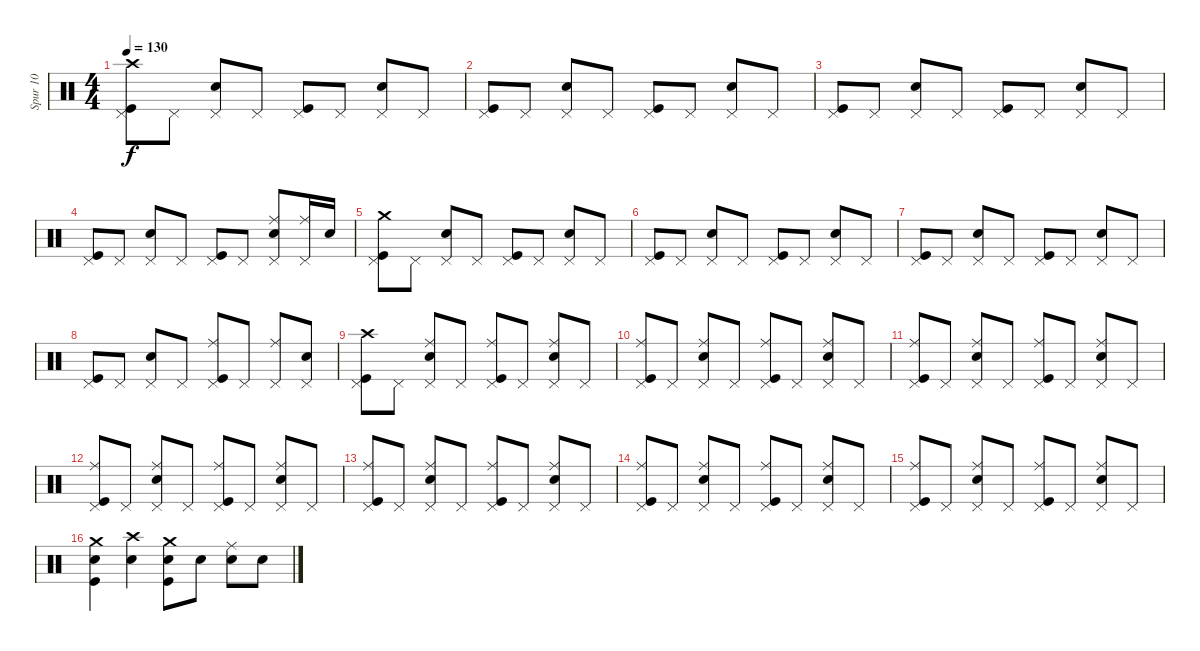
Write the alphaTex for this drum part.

\track ("Spur 10" "Spur 10") {instrument percussion}
\staff {score}
\articulation defaults
\ts (4 4)
\tempo 130
\clef neutral
\ks c
("Crash high (hit)" "Pedal Hi-Hat (hit)" "Kick (hit)").8{dy f} "Pedal Hi-Hat (hit)".8 ("Pedal Hi-Hat (hit)" "Electric Snare (hit)").8 "Pedal Hi-Hat (hit)".8 ("Pedal Hi-Hat (hit)" "Kick (hit)").8 "Pedal Hi-Hat (hit)".8 ("Pedal Hi-Hat (hit)" "Electric Snare (hit)").8 "Pedal Hi-Hat (hit)".8 |
("Pedal Hi-Hat (hit)" "Kick (hit)").8 "Pedal Hi-Hat (hit)".8 ("Pedal Hi-Hat (hit)" "Electric Snare (hit)").8 "Pedal Hi-Hat (hit)".8 ("Pedal Hi-Hat (hit)" "Kick (hit)").8 "Pedal Hi-Hat (hit)".8 ("Pedal Hi-Hat (hit)" "Electric Snare (hit)").8 "Pedal Hi-Hat (hit)".8 |
("Pedal Hi-Hat (hit)" "Kick (hit)").8 "Pedal Hi-Hat (hit)".8 ("Pedal Hi-Hat (hit)" "Electric Snare (hit)").8 "Pedal Hi-Hat (hit)".8 ("Pedal Hi-Hat (hit)" "Kick (hit)").8 "Pedal Hi-Hat (hit)".8 ("Pedal Hi-Hat (hit)" "Electric Snare (hit)").8 "Pedal Hi-Hat (hit)".8 |
("Pedal Hi-Hat (hit)" "Kick (hit)").8 "Pedal Hi-Hat (hit)".8 ("Pedal Hi-Hat (hit)" "Electric Snare (hit)").8 "Pedal Hi-Hat (hit)".8 ("Pedal Hi-Hat (hit)" "Kick (hit)").8 "Pedal Hi-Hat (hit)".8 ("Ride (middle)" "Pedal Hi-Hat (hit)" "Electric Snare (hit)").8 ("Ride (middle)" "Pedal Hi-Hat (hit)").16 "Electric Snare (hit)".16 |
("Crash medium (hit)" "Pedal Hi-Hat (hit)" "Kick (hit)").8 "Pedal Hi-Hat (hit)".8 ("Pedal Hi-Hat (hit)" "Electric Snare (hit)").8 "Pedal Hi-Hat (hit)".8 ("Pedal Hi-Hat (hit)" "Kick (hit)").8 "Pedal Hi-Hat (hit)".8 ("Pedal Hi-Hat (hit)" "Electric Snare (hit)").8 "Pedal Hi-Hat (hit)".8 |
("Pedal Hi-Hat (hit)" "Kick (hit)").8 "Pedal Hi-Hat (hit)".8 ("Pedal Hi-Hat (hit)" "Electric Snare (hit)").8 "Pedal Hi-Hat (hit)".8 ("Pedal Hi-Hat (hit)" "Kick (hit)").8 "Pedal Hi-Hat (hit)".8 ("Pedal Hi-Hat (hit)" "Electric Snare (hit)").8 "Pedal Hi-Hat (hit)".8 |
("Pedal Hi-Hat (hit)" "Kick (hit)").8 "Pedal Hi-Hat (hit)".8 ("Pedal Hi-Hat (hit)" "Electric Snare (hit)").8 "Pedal Hi-Hat (hit)".8 ("Pedal Hi-Hat (hit)" "Kick (hit)").8 "Pedal Hi-Hat (hit)".8 ("Pedal Hi-Hat (hit)" "Electric Snare (hit)").8 "Pedal Hi-Hat (hit)".8 |
("Pedal Hi-Hat (hit)" "Kick (hit)").8 "Pedal Hi-Hat (hit)".8 ("Pedal Hi-Hat (hit)" "Electric Snare (hit)").8 "Pedal Hi-Hat (hit)".8 ("Ride (middle)" "Pedal Hi-Hat (hit)" "Kick (hit)").8 "Pedal Hi-Hat (hit)".8 ("Ride (middle)" "Pedal Hi-Hat (hit)").8 ("Electric Snare (hit)" "Pedal Hi-Hat (hit)").8 |
("Crash high (hit)" "Pedal Hi-Hat (hit)" "Kick (hit)").8 "Pedal Hi-Hat (hit)".8 ("Ride (middle)" "Pedal Hi-Hat (hit)" "Electric Snare (hit)").8 "Pedal Hi-Hat (hit)".8 ("Ride (middle)" "Pedal Hi-Hat (hit)" "Kick (hit)").8 "Pedal Hi-Hat (hit)".8 ("Ride (middle)" "Pedal Hi-Hat (hit)" "Electric Snare (hit)").8 "Pedal Hi-Hat (hit)".8 |
("Ride (middle)" "Pedal Hi-Hat (hit)" "Kick (hit)").8 "Pedal Hi-Hat (hit)".8 ("Ride (middle)" "Pedal Hi-Hat (hit)" "Electric Snare (hit)").8 "Pedal Hi-Hat (hit)".8 ("Ride (middle)" "Pedal Hi-Hat (hit)" "Kick (hit)").8 "Pedal Hi-Hat (hit)".8 ("Ride (middle)" "Pedal Hi-Hat (hit)" "Electric Snare (hit)").8 "Pedal Hi-Hat (hit)".8 |
("Ride (middle)" "Pedal Hi-Hat (hit)" "Kick (hit)").8 "Pedal Hi-Hat (hit)".8 ("Ride (middle)" "Pedal Hi-Hat (hit)" "Electric Snare (hit)").8 "Pedal Hi-Hat (hit)".8 ("Ride (middle)" "Pedal Hi-Hat (hit)" "Kick (hit)").8 "Pedal Hi-Hat (hit)".8 ("Ride (middle)" "Pedal Hi-Hat (hit)" "Electric Snare (hit)").8 "Pedal Hi-Hat (hit)".8 |
("Ride (middle)" "Pedal Hi-Hat (hit)" "Kick (hit)").8 "Pedal Hi-Hat (hit)".8 ("Ride (middle)" "Pedal Hi-Hat (hit)" "Electric Snare (hit)").8 "Pedal Hi-Hat (hit)".8 ("Ride (middle)" "Pedal Hi-Hat (hit)" "Kick (hit)").8 "Pedal Hi-Hat (hit)".8 ("Ride (middle)" "Pedal Hi-Hat (hit)" "Electric Snare (hit)").8 "Pedal Hi-Hat (hit)".8 |
("Ride (middle)" "Pedal Hi-Hat (hit)" "Kick (hit)").8 "Pedal Hi-Hat (hit)".8 ("Ride (middle)" "Pedal Hi-Hat (hit)" "Electric Snare (hit)").8 "Pedal Hi-Hat (hit)".8 ("Ride (middle)" "Pedal Hi-Hat (hit)" "Kick (hit)").8 "Pedal Hi-Hat (hit)".8 ("Ride (middle)" "Pedal Hi-Hat (hit)" "Electric Snare (hit)").8 "Pedal Hi-Hat (hit)".8 |
("Ride (middle)" "Pedal Hi-Hat (hit)" "Kick (hit)").8 "Pedal Hi-Hat (hit)".8 ("Ride (middle)" "Pedal Hi-Hat (hit)" "Electric Snare (hit)").8 "Pedal Hi-Hat (hit)".8 ("Ride (middle)" "Pedal Hi-Hat (hit)" "Kick (hit)").8 "Pedal Hi-Hat (hit)".8 ("Ride (middle)" "Pedal Hi-Hat (hit)" "Electric Snare (hit)").8 "Pedal Hi-Hat (hit)".8 |
("Ride (middle)" "Pedal Hi-Hat (hit)" "Kick (hit)").8 "Pedal Hi-Hat (hit)".8 ("Ride (middle)" "Pedal Hi-Hat (hit)" "Electric Snare (hit)").8 "Pedal Hi-Hat (hit)".8 ("Ride (middle)" "Pedal Hi-Hat (hit)" "Kick (hit)").8 "Pedal Hi-Hat (hit)".8 ("Ride (middle)" "Pedal Hi-Hat (hit)" "Electric Snare (hit)").8 "Pedal Hi-Hat (hit)".8 |
("Electric Snare (hit)" "Crash medium (hit)" "Kick (hit)").4 ("Crash high (hit)" "Electric Snare (hit)").4 ("Electric Snare (hit)" "Crash medium (hit)" "Kick (hit)").8 "Electric Snare (hit)".8 ("Ride (middle)" "Electric Snare (hit)").8 "Electric Snare (hit)".8
